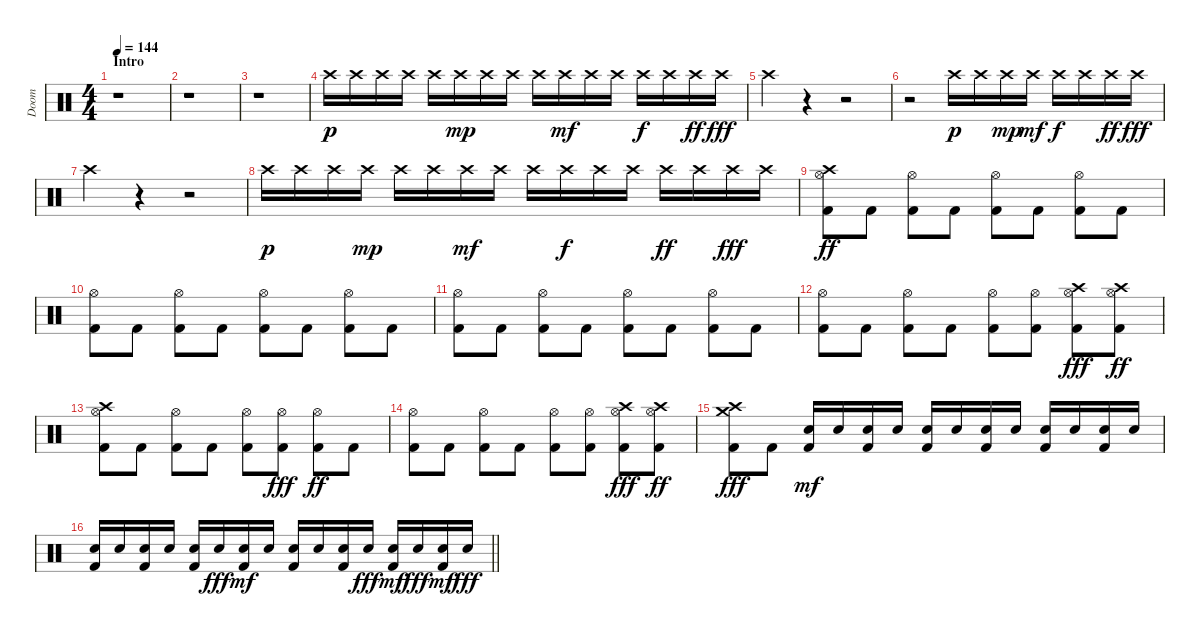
\track ("Doom" "Doom") {instrument percussion}
\staff {score}
\articulation defaults
\ts (4 4)
\section ("" "Intro")
\tempo 144
\clef neutral
\ks c
r.1{dy p} |
r.1 |
r.1 |
"Crash high (hit)".16 "Crash high (hit)".16 "Crash high (hit)".16 "Crash high (hit)".16 "Crash high (hit)".16 "Crash high (hit)".16{dy mp} "Crash high (hit)".16 "Crash high (hit)".16 "Crash high (hit)".16 "Crash high (hit)".16{dy mf} "Crash high (hit)".16 "Crash high (hit)".16 "Crash high (hit)".16{dy f} "Crash high (hit)".16 "Crash high (hit)".16{dy ff} "Crash high (hit)".16{dy fff} |
"Crash high (hit)".4 r.4 r.2 |
r.2 "Crash high (hit)".16{dy p} "Crash high (hit)".16 "Crash high (hit)".16{dy mp} "Crash high (hit)".16{dy mf} "Crash high (hit)".16{dy f} "Crash high (hit)".16 "Crash high (hit)".16{dy ff} "Crash high (hit)".16{dy fff} |
"Crash high (hit)".4 r.4 r.2 |
"Crash high (hit)".16{dy p} "Crash high (hit)".16 "Crash high (hit)".16 "Crash high (hit)".16{dy mp} "Crash high (hit)".16 "Crash high (hit)".16 "Crash high (hit)".16{dy mf} "Crash high (hit)".16 "Crash high (hit)".16 "Crash high (hit)".16{dy f} "Crash high (hit)".16 "Crash high (hit)".16 "Crash high (hit)".16{dy ff} "Crash high (hit)".16 "Crash high (hit)".16{dy fff} "Crash high (hit)".16 |
("Crash high (hit)" "Kick (hit) 2" "Hi-Hat (open)").8{dy ff} "Kick (hit) 2".8 ("Kick (hit) 2" "Hi-Hat (open)").8 "Kick (hit) 2".8 ("Kick (hit) 2" "Hi-Hat (open)").8 "Kick (hit) 2".8 ("Kick (hit) 2" "Hi-Hat (open)").8 "Kick (hit) 2".8 |
("Kick (hit) 2" "Hi-Hat (open)").8 "Kick (hit) 2".8 ("Kick (hit) 2" "Hi-Hat (open)").8 "Kick (hit) 2".8 ("Kick (hit) 2" "Hi-Hat (open)").8 "Kick (hit) 2".8 ("Kick (hit) 2" "Hi-Hat (open)").8 "Kick (hit) 2".8 |
("Kick (hit) 2" "Hi-Hat (open)").8 "Kick (hit) 2".8 ("Kick (hit) 2" "Hi-Hat (open)").8 "Kick (hit) 2".8 ("Kick (hit) 2" "Hi-Hat (open)").8 "Kick (hit) 2".8 ("Kick (hit) 2" "Hi-Hat (open)").8 "Kick (hit) 2".8 |
("Kick (hit) 2" "Hi-Hat (open)").8 "Kick (hit) 2".8 ("Kick (hit) 2" "Hi-Hat (open)").8 "Kick (hit) 2".8 ("Kick (hit) 2" "Hi-Hat (open)").8 ("Kick (hit) 2" "Hi-Hat (open)").8 ("Kick (hit) 2" "Hi-Hat (open)" "Crash high (hit)").8{dy fff} ("Kick (hit) 2" "Hi-Hat (open)" "Crash high (hit)").8{dy ff} |
("Crash high (hit)" "Kick (hit) 2" "Hi-Hat (open)").8 "Kick (hit) 2".8 ("Kick (hit) 2" "Hi-Hat (open)").8 "Kick (hit) 2".8 ("Kick (hit) 2" "Hi-Hat (open)").8 ("Kick (hit) 2" "Hi-Hat (open)").8{dy fff} ("Kick (hit) 2" "Hi-Hat (open)").8{dy ff} "Kick (hit) 2".8 |
("Kick (hit) 2" "Hi-Hat (open)").8 "Kick (hit) 2".8 ("Kick (hit) 2" "Hi-Hat (open)").8 "Kick (hit) 2".8 ("Kick (hit) 2" "Hi-Hat (open)").8 ("Kick (hit) 2" "Hi-Hat (open)").8 ("Kick (hit) 2" "Hi-Hat (open)" "Crash high (hit)").8{dy fff} ("Kick (hit) 2" "Hi-Hat (open)" "Crash high (hit)").8{dy ff} |
("Crash medium (hit)" "Crash high (hit)" "Kick (hit) 2").8{dy fff} "Kick (hit) 2".8 ("Electric Snare (hit)" "Kick (hit) 2").16{dy mf volume 16} "Electric Snare (hit)".16 ("Electric Snare (hit)" "Kick (hit) 2").16 "Electric Snare (hit)".16 ("Electric Snare (hit)" "Kick (hit) 2").16 "Electric Snare (hit)".16 ("Electric Snare (hit)" "Kick (hit) 2").16 "Electric Snare (hit)".16 ("Electric Snare (hit)" "Kick (hit) 2").16 "Electric Snare (hit)".16 ("Electric Snare (hit)" "Kick (hit) 2").16 "Electric Snare (hit)".16 |
\barLineRight lightlight
("Electric Snare (hit)" "Kick (hit) 2").16 "Electric Snare (hit)".16 ("Electric Snare (hit)" "Kick (hit) 2").16 "Electric Snare (hit)".16 ("Electric Snare (hit)" "Kick (hit) 2").16 "Electric Snare (hit)".16{dy fff} ("Electric Snare (hit)" "Kick (hit) 2").16{dy mf} "Electric Snare (hit)".16 ("Electric Snare (hit)" "Kick (hit) 2").16 "Electric Snare (hit)".16 ("Electric Snare (hit)" "Kick (hit) 2").16 "Electric Snare (hit)".16{dy fff} ("Electric Snare (hit)" "Kick (hit) 2").16{dy mf} "Electric Snare (hit)".16{dy fff} ("Electric Snare (hit)" "Kick (hit) 2").16{dy mf} "Electric Snare (hit)".16{dy fff}
